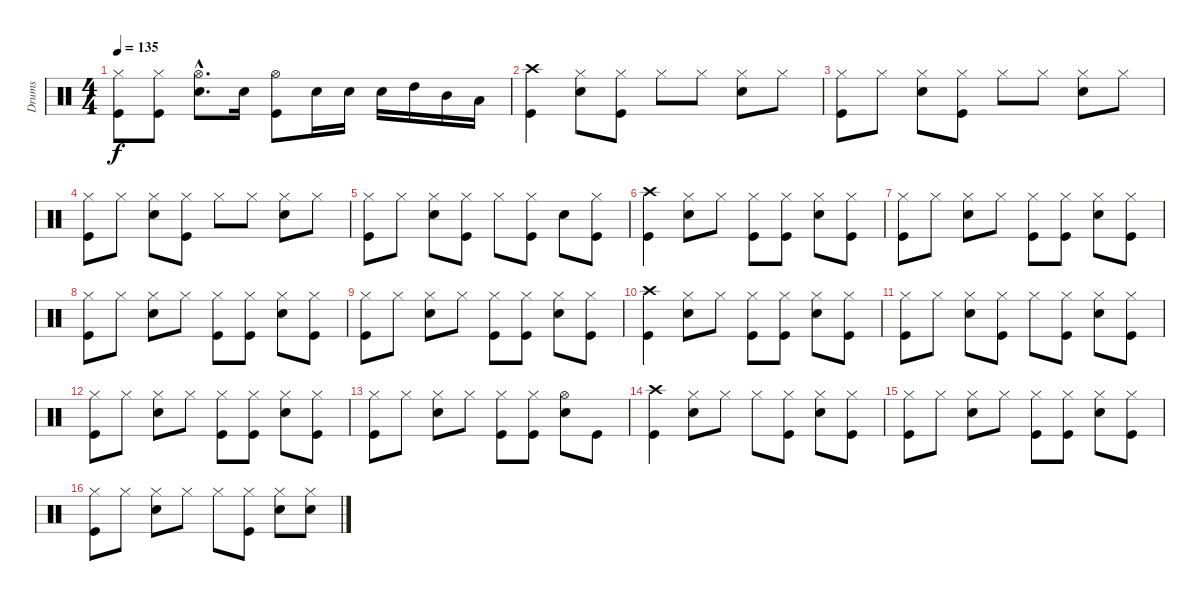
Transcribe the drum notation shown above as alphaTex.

\track ("Drums" "Drums") {instrument percussion}
\staff {score}
\articulation defaults
\ts (4 4)
\tempo 135
\clef neutral
\ks c
("Kick (hit)" "Hi-Hat (closed)").8{dy f} ("Kick (hit)" "Hi-Hat (closed)").8 ("Electric Snare (hit)"{hac} "Hi-Hat (open)"{hac}).8{d} "Electric Snare (hit)".16 ("Kick (hit)" "Hi-Hat (open)").8 "Electric Snare (hit)".16 "Electric Snare (hit)".16 "Electric Snare (hit)".16 "High Tom (hit)".16 "Mid Tom (hit)".16 "Low Tom (hit)".16 |
("Kick (hit)" "Crash high (hit)").4 ("Electric Snare (hit)" "Hi-Hat (closed)").8 ("Kick (hit)" "Hi-Hat (closed)").8 "Hi-Hat (closed)".8 "Hi-Hat (closed)".8 ("Electric Snare (hit)" "Hi-Hat (closed)").8 "Hi-Hat (closed)".8 |
("Kick (hit)" "Hi-Hat (closed)").8 "Hi-Hat (closed)".8 ("Electric Snare (hit)" "Hi-Hat (closed)").8 ("Kick (hit)" "Hi-Hat (closed)").8 "Hi-Hat (closed)".8 "Hi-Hat (closed)".8 ("Electric Snare (hit)" "Hi-Hat (closed)").8 "Hi-Hat (closed)".8 |
("Kick (hit)" "Hi-Hat (closed)").8 "Hi-Hat (closed)".8 ("Electric Snare (hit)" "Hi-Hat (closed)").8 ("Kick (hit)" "Hi-Hat (closed)").8 "Hi-Hat (closed)".8 "Hi-Hat (closed)".8 ("Electric Snare (hit)" "Hi-Hat (closed)").8 "Hi-Hat (closed)".8 |
("Kick (hit)" "Hi-Hat (closed)").8 "Hi-Hat (closed)".8 ("Electric Snare (hit)" "Hi-Hat (closed)").8 ("Kick (hit)" "Hi-Hat (closed)").8 "Hi-Hat (closed)".8 ("Kick (hit)" "Hi-Hat (closed)").8 "Electric Snare (hit)".8 ("Kick (hit)" "Hi-Hat (closed)").8 |
("Kick (hit)" "Crash high (hit)").4 ("Electric Snare (hit)" "Hi-Hat (closed)").8 "Hi-Hat (closed)".8 ("Kick (hit)" "Hi-Hat (closed)").8 ("Kick (hit)" "Hi-Hat (closed)").8 ("Electric Snare (hit)" "Hi-Hat (closed)").8 ("Kick (hit)" "Hi-Hat (closed)").8 |
("Kick (hit)" "Hi-Hat (closed)").8 "Hi-Hat (closed)".8 ("Electric Snare (hit)" "Hi-Hat (closed)").8 "Hi-Hat (closed)".8 ("Kick (hit)" "Hi-Hat (closed)").8 ("Kick (hit)" "Hi-Hat (closed)").8 ("Electric Snare (hit)" "Hi-Hat (closed)").8 ("Kick (hit)" "Hi-Hat (closed)").8 |
("Kick (hit)" "Hi-Hat (closed)").8 "Hi-Hat (closed)".8 ("Electric Snare (hit)" "Hi-Hat (closed)").8 "Hi-Hat (closed)".8 ("Kick (hit)" "Hi-Hat (closed)").8 ("Kick (hit)" "Hi-Hat (closed)").8 ("Electric Snare (hit)" "Hi-Hat (closed)").8 ("Kick (hit)" "Hi-Hat (closed)").8 |
("Kick (hit)" "Hi-Hat (closed)").8 "Hi-Hat (closed)".8 ("Electric Snare (hit)" "Hi-Hat (closed)").8 "Hi-Hat (closed)".8 ("Kick (hit)" "Hi-Hat (closed)").8 ("Kick (hit)" "Hi-Hat (closed)").8 ("Electric Snare (hit)" "Hi-Hat (closed)").8 ("Kick (hit)" "Hi-Hat (closed)").8 |
("Kick (hit)" "Crash high (hit)").4 ("Electric Snare (hit)" "Hi-Hat (closed)").8 "Hi-Hat (closed)".8 ("Kick (hit)" "Hi-Hat (closed)").8 ("Kick (hit)" "Hi-Hat (closed)").8 ("Electric Snare (hit)" "Hi-Hat (closed)").8 ("Kick (hit)" "Hi-Hat (closed)").8 |
("Kick (hit)" "Hi-Hat (closed)").8 "Hi-Hat (closed)".8 ("Electric Snare (hit)" "Hi-Hat (closed)").8 ("Kick (hit)" "Hi-Hat (closed)").8 "Hi-Hat (closed)".8 ("Kick (hit)" "Hi-Hat (closed)").8 ("Electric Snare (hit)" "Hi-Hat (closed)").8 ("Kick (hit)" "Hi-Hat (closed)").8 |
("Kick (hit)" "Hi-Hat (closed)").8 "Hi-Hat (closed)".8 ("Electric Snare (hit)" "Hi-Hat (closed)").8 "Hi-Hat (closed)".8 ("Kick (hit)" "Hi-Hat (closed)").8 ("Kick (hit)" "Hi-Hat (closed)").8 ("Electric Snare (hit)" "Hi-Hat (closed)").8 ("Kick (hit)" "Hi-Hat (closed)").8 |
("Kick (hit)" "Hi-Hat (closed)").8 "Hi-Hat (closed)".8 ("Electric Snare (hit)" "Hi-Hat (closed)").8 "Hi-Hat (closed)".8 ("Kick (hit)" "Hi-Hat (closed)").8 ("Kick (hit)" "Hi-Hat (closed)").8 ("Electric Snare (hit)" "Hi-Hat (open)").8 "Kick (hit)".8 |
("Kick (hit)" "Crash high (hit)").4 ("Electric Snare (hit)" "Hi-Hat (closed)").8 "Hi-Hat (closed)".8 "Hi-Hat (closed)".8 ("Kick (hit)" "Hi-Hat (closed)").8 ("Electric Snare (hit)" "Hi-Hat (closed)").8 ("Kick (hit)" "Hi-Hat (closed)").8 |
("Kick (hit)" "Hi-Hat (closed)").8 "Hi-Hat (closed)".8 ("Electric Snare (hit)" "Hi-Hat (closed)").8 "Hi-Hat (closed)".8 ("Kick (hit)" "Hi-Hat (closed)").8 ("Kick (hit)" "Hi-Hat (closed)").8 ("Electric Snare (hit)" "Hi-Hat (closed)").8 ("Kick (hit)" "Hi-Hat (closed)").8 |
("Kick (hit)" "Hi-Hat (closed)").8 "Hi-Hat (closed)".8 ("Electric Snare (hit)" "Hi-Hat (closed)").8 "Hi-Hat (closed)".8 "Hi-Hat (closed)".8 ("Kick (hit)" "Hi-Hat (closed)").8 ("Electric Snare (hit)" "Hi-Hat (closed)").8 ("Electric Snare (hit)" "Hi-Hat (closed)").8
